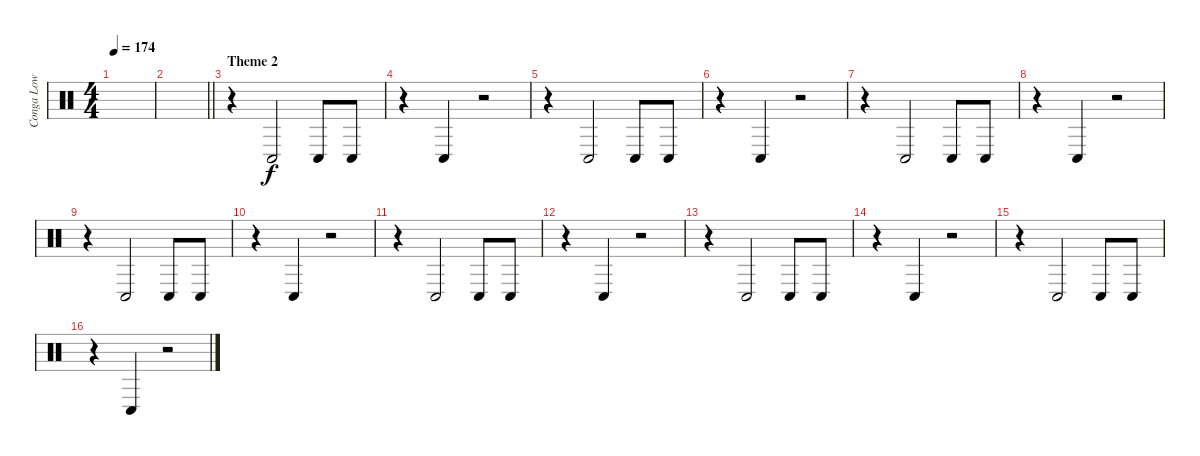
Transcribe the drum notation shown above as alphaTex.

\track ("Conga Low" "Conga Low") {instrument percussion}
\staff {score}
\articulation defaults
\ts (4 4)
\tempo 174
\clef neutral
\ks c
|
\barLineRight lightlight
|
\section ("" "Theme 2")
r.4 "Conga low (hit)".2 "Conga low (hit)".8 "Conga low (hit)".8 |
r.4 "Conga low (hit)".4 r.2 |
r.4 "Conga low (hit)".2 "Conga low (hit)".8 "Conga low (hit)".8 |
r.4 "Conga low (hit)".4 r.2 |
r.4 "Conga low (hit)".2 "Conga low (hit)".8 "Conga low (hit)".8 |
r.4 "Conga low (hit)".4 r.2 |
r.4 "Conga low (hit)".2 "Conga low (hit)".8 "Conga low (hit)".8 |
r.4 "Conga low (hit)".4 r.2 |
r.4 "Conga low (hit)".2 "Conga low (hit)".8 "Conga low (hit)".8 |
r.4 "Conga low (hit)".4 r.2 |
r.4 "Conga low (hit)".2 "Conga low (hit)".8 "Conga low (hit)".8 |
r.4 "Conga low (hit)".4 r.2 |
r.4 "Conga low (hit)".2 "Conga low (hit)".8 "Conga low (hit)".8 |
r.4 "Conga low (hit)".4 r.2
